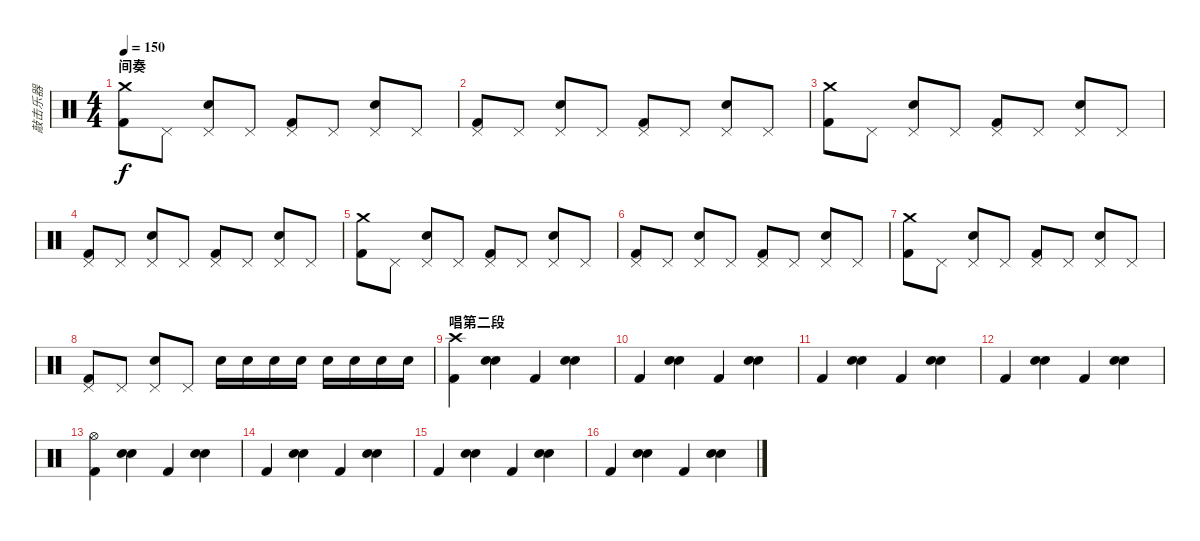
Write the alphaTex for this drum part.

\track ("敲击乐器" "敲击乐器") {instrument percussion}
\staff {score}
\articulation defaults
\ts (4 4)
\section ("" "间奏")
\tempo 150
\clef neutral
\ks c
("Kick (hit) 2" "Crash medium (hit)").8{dy f} "Pedal Hi-Hat (hit)".8 ("Snare (hit) 2" "Pedal Hi-Hat (hit)").8 "Pedal Hi-Hat (hit)".8 ("Kick (hit) 2" "Pedal Hi-Hat (hit)").8 "Pedal Hi-Hat (hit)".8 ("Snare (hit) 2" "Pedal Hi-Hat (hit)").8 "Pedal Hi-Hat (hit)".8 |
("Kick (hit) 2" "Pedal Hi-Hat (hit)").8 "Pedal Hi-Hat (hit)".8 ("Snare (hit) 2" "Pedal Hi-Hat (hit)").8 "Pedal Hi-Hat (hit)".8 ("Kick (hit) 2" "Pedal Hi-Hat (hit)").8 "Pedal Hi-Hat (hit)".8 ("Snare (hit) 2" "Pedal Hi-Hat (hit)").8 "Pedal Hi-Hat (hit)".8 |
("Kick (hit) 2" "Crash medium (hit)").8 "Pedal Hi-Hat (hit)".8 ("Snare (hit) 2" "Pedal Hi-Hat (hit)").8 "Pedal Hi-Hat (hit)".8 ("Kick (hit) 2" "Pedal Hi-Hat (hit)").8 "Pedal Hi-Hat (hit)".8 ("Snare (hit) 2" "Pedal Hi-Hat (hit)").8 "Pedal Hi-Hat (hit)".8 |
("Kick (hit) 2" "Pedal Hi-Hat (hit)").8 "Pedal Hi-Hat (hit)".8 ("Snare (hit) 2" "Pedal Hi-Hat (hit)").8 "Pedal Hi-Hat (hit)".8 ("Kick (hit) 2" "Pedal Hi-Hat (hit)").8 "Pedal Hi-Hat (hit)".8 ("Snare (hit) 2" "Pedal Hi-Hat (hit)").8 "Pedal Hi-Hat (hit)".8 |
("Kick (hit) 2" "Crash medium (hit)").8 "Pedal Hi-Hat (hit)".8 ("Snare (hit) 2" "Pedal Hi-Hat (hit)").8 "Pedal Hi-Hat (hit)".8 ("Kick (hit) 2" "Pedal Hi-Hat (hit)").8 "Pedal Hi-Hat (hit)".8 ("Snare (hit) 2" "Pedal Hi-Hat (hit)").8 "Pedal Hi-Hat (hit)".8 |
("Kick (hit) 2" "Pedal Hi-Hat (hit)").8 "Pedal Hi-Hat (hit)".8 ("Snare (hit) 2" "Pedal Hi-Hat (hit)").8 "Pedal Hi-Hat (hit)".8 ("Kick (hit) 2" "Pedal Hi-Hat (hit)").8 "Pedal Hi-Hat (hit)".8 ("Snare (hit) 2" "Pedal Hi-Hat (hit)").8 "Pedal Hi-Hat (hit)".8 |
("Kick (hit) 2" "Crash medium (hit)").8 "Pedal Hi-Hat (hit)".8 ("Snare (hit) 2" "Pedal Hi-Hat (hit)").8 "Pedal Hi-Hat (hit)".8 ("Kick (hit) 2" "Pedal Hi-Hat (hit)").8 "Pedal Hi-Hat (hit)".8 ("Snare (hit) 2" "Pedal Hi-Hat (hit)").8 "Pedal Hi-Hat (hit)".8 |
("Kick (hit) 2" "Pedal Hi-Hat (hit)").8 "Pedal Hi-Hat (hit)".8 ("Snare (hit) 2" "Pedal Hi-Hat (hit)").8 "Pedal Hi-Hat (hit)".8 "Electric Snare (hit)".16 "Electric Snare (hit)".16 "Electric Snare (hit)".16 "Electric Snare (hit)".16 "Electric Snare (hit)".16 "Electric Snare (hit)".16 "Electric Snare (hit)".16 "Electric Snare (hit)".16 |
\section ("" "唱第二段")
("Kick (hit) 2" "Crash high (hit)").4 ("Snare (hit) 2" "Electric Snare (hit)").4 "Kick (hit) 2".4 ("Snare (hit) 2" "Electric Snare (hit)").4 |
"Kick (hit) 2".4 ("Snare (hit) 2" "Electric Snare (hit)").4 "Kick (hit) 2".4 ("Snare (hit) 2" "Electric Snare (hit)").4 |
"Kick (hit) 2".4 ("Snare (hit) 2" "Electric Snare (hit)").4 "Kick (hit) 2".4 ("Snare (hit) 2" "Electric Snare (hit)").4 |
"Kick (hit) 2".4 ("Snare (hit) 2" "Electric Snare (hit)").4 "Kick (hit) 2".4 ("Snare (hit) 2" "Electric Snare (hit)").4 |
("Kick (hit) 2" "Hi-Hat (open)").4 ("Snare (hit) 2" "Electric Snare (hit)").4 "Kick (hit) 2".4 ("Snare (hit) 2" "Electric Snare (hit)").4 |
"Kick (hit) 2".4 ("Snare (hit) 2" "Electric Snare (hit)").4 "Kick (hit) 2".4 ("Snare (hit) 2" "Electric Snare (hit)").4 |
"Kick (hit) 2".4 ("Snare (hit) 2" "Electric Snare (hit)").4 "Kick (hit) 2".4 ("Snare (hit) 2" "Electric Snare (hit)").4 |
"Kick (hit) 2".4 ("Snare (hit) 2" "Electric Snare (hit)").4 "Kick (hit) 2".4 ("Snare (hit) 2" "Electric Snare (hit)").4
